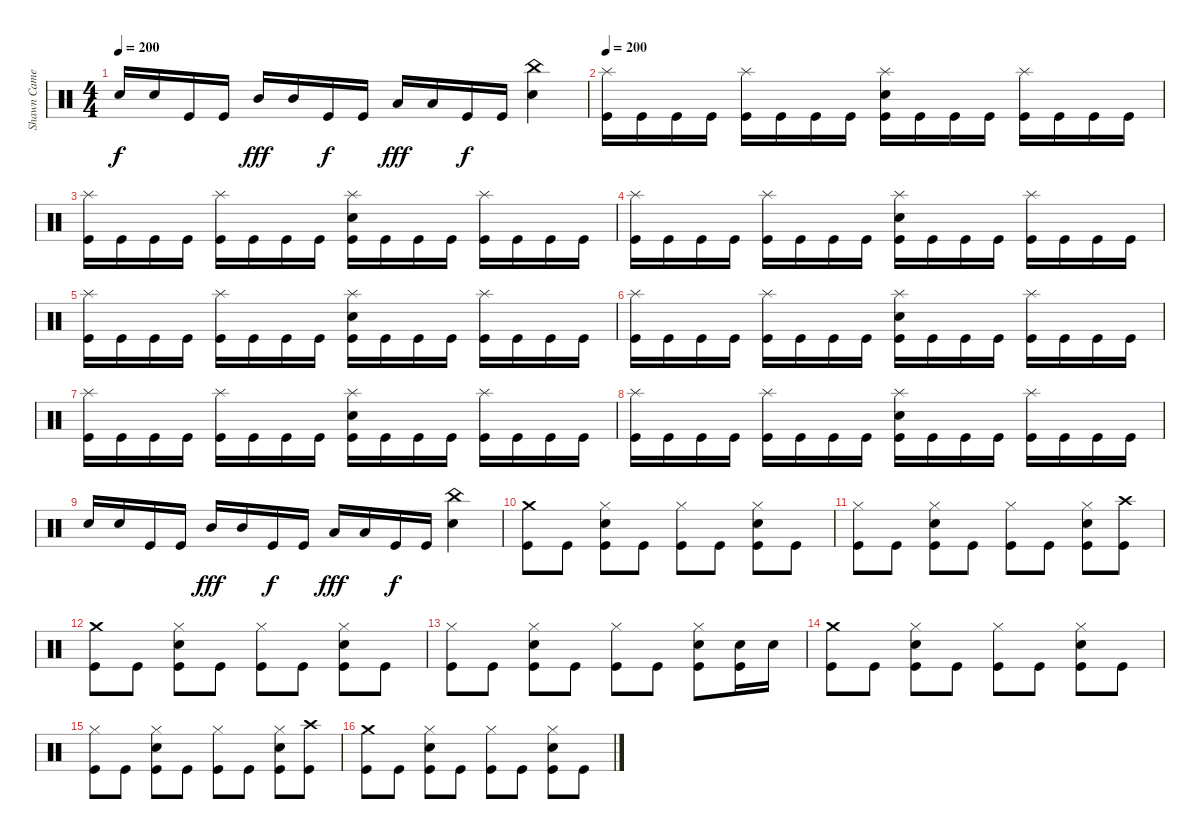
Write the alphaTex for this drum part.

\track ("Shawn Cameron" "Shawn Came") {instrument percussion}
\staff {score}
\articulation defaults
\ts (4 4)
\tempo 200
\clef neutral
\ks c "Snare (hit) 2".16{dy f} "Snare (hit) 2".16 "Kick (hit)".16 "Kick (hit)".16 "Mid Tom (hit)".16{dy fff} "Mid Tom (hit)".16 "Kick (hit)".16{dy f} "Kick (hit)".16 "Low Floor Tom (hit)".16{dy fff} "Low Floor Tom (hit)".16 "Kick (hit)".16{dy f} "Kick (hit)".16
("China (hit)" "Snare (hit) 2").4 |
\tempo 200
("Splash (hit)" "Kick (hit)").16 "Kick (hit)".16 "Kick (hit)".16 "Kick (hit)".16 ("Splash (hit)" "Kick (hit)").16 "Kick (hit)".16 "Kick (hit)".16 "Kick (hit)".16 ("Splash (hit)" "Snare (hit) 2" "Kick (hit)").16 "Kick (hit)".16 "Kick (hit)".16 "Kick (hit)".16 ("Splash (hit)" "Kick (hit)").16 "Kick (hit)".16 "Kick (hit)".16 "Kick (hit)".16 |
("Splash (hit)" "Kick (hit)").16 "Kick (hit)".16 "Kick (hit)".16 "Kick (hit)".16 ("Splash (hit)" "Kick (hit)").16 "Kick (hit)".16 "Kick (hit)".16 "Kick (hit)".16 ("Splash (hit)" "Snare (hit) 2" "Kick (hit)").16 "Kick (hit)".16 "Kick (hit)".16 "Kick (hit)".16 ("Splash (hit)" "Kick (hit)").16 "Kick (hit)".16 "Kick (hit)".16 "Kick (hit)".16 |
("Splash (hit)" "Kick (hit)").16 "Kick (hit)".16 "Kick (hit)".16 "Kick (hit)".16 ("Splash (hit)" "Kick (hit)").16 "Kick (hit)".16 "Kick (hit)".16 "Kick (hit)".16 ("Splash (hit)" "Snare (hit) 2" "Kick (hit)").16 "Kick (hit)".16 "Kick (hit)".16 "Kick (hit)".16 ("Splash (hit)" "Kick (hit)").16 "Kick (hit)".16 "Kick (hit)".16 "Kick (hit)".16 |
("Splash (hit)" "Kick (hit)").16 "Kick (hit)".16 "Kick (hit)".16 "Kick (hit)".16 ("Splash (hit)" "Kick (hit)").16 "Kick (hit)".16 "Kick (hit)".16 "Kick (hit)".16 ("Splash (hit)" "Snare (hit) 2" "Kick (hit)").16 "Kick (hit)".16 "Kick (hit)".16 "Kick (hit)".16 ("Splash (hit)" "Kick (hit)").16 "Kick (hit)".16 "Kick (hit)".16 "Kick (hit)".16 |
("Splash (hit)" "Kick (hit)").16 "Kick (hit)".16 "Kick (hit)".16 "Kick (hit)".16 ("Splash (hit)" "Kick (hit)").16 "Kick (hit)".16 "Kick (hit)".16 "Kick (hit)".16 ("Splash (hit)" "Snare (hit) 2" "Kick (hit)").16 "Kick (hit)".16 "Kick (hit)".16 "Kick (hit)".16 ("Splash (hit)" "Kick (hit)").16 "Kick (hit)".16 "Kick (hit)".16 "Kick (hit)".16 |
("Splash (hit)" "Kick (hit)").16 "Kick (hit)".16 "Kick (hit)".16 "Kick (hit)".16 ("Splash (hit)" "Kick (hit)").16 "Kick (hit)".16 "Kick (hit)".16 "Kick (hit)".16 ("Splash (hit)" "Snare (hit) 2" "Kick (hit)").16 "Kick (hit)".16 "Kick (hit)".16 "Kick (hit)".16 ("Splash (hit)" "Kick (hit)").16 "Kick (hit)".16 "Kick (hit)".16 "Kick (hit)".16 |
("Splash (hit)" "Kick (hit)").16 "Kick (hit)".16 "Kick (hit)".16 "Kick (hit)".16 ("Splash (hit)" "Kick (hit)").16 "Kick (hit)".16 "Kick (hit)".16 "Kick (hit)".16 ("Splash (hit)" "Snare (hit) 2" "Kick (hit)").16 "Kick (hit)".16 "Kick (hit)".16 "Kick (hit)".16 ("Splash (hit)" "Kick (hit)").16 "Kick (hit)".16 "Kick (hit)".16 "Kick (hit)".16 |
"Snare (hit) 2".16 "Snare (hit) 2".16 "Kick (hit)".16 "Kick (hit)".16 "Mid Tom (hit)".16{dy fff} "Mid Tom (hit)".16 "Kick (hit)".16{dy f} "Kick (hit)".16 "Low Floor Tom (hit)".16{dy fff} "Low Floor Tom (hit)".16 "Kick (hit)".16{dy f} "Kick (hit)".16 ("China (hit)" "Snare (hit) 2").4 |
("Crash medium (hit)" "Kick (hit)").8 "Kick (hit)".8 ("Hi-Hat (closed)" "Snare (hit) 2" "Kick (hit)").8 "Kick (hit)".8 ("Hi-Hat (closed)" "Kick (hit)").8 "Kick (hit)".8 ("Hi-Hat (closed)" "Snare (hit) 2" "Kick (hit)").8 "Kick (hit)".8 |
("Hi-Hat (closed)" "Kick (hit)").8 "Kick (hit)".8 ("Hi-Hat (closed)" "Snare (hit) 2" "Kick (hit)").8 "Kick (hit)".8 ("Hi-Hat (closed)" "Kick (hit)").8 "Kick (hit)".8 ("Hi-Hat (closed)" "Snare (hit) 2" "Kick (hit)").8 ("Crash high (hit)" "Kick (hit)").8 |
("Crash medium (hit)" "Kick (hit)").8 "Kick (hit)".8 ("Hi-Hat (closed)" "Snare (hit) 2" "Kick (hit)").8 "Kick (hit)".8 ("Hi-Hat (closed)" "Kick (hit)").8 "Kick (hit)".8 ("Hi-Hat (closed)" "Snare (hit) 2" "Kick (hit)").8 "Kick (hit)".8 |
("Hi-Hat (closed)" "Kick (hit)").8 "Kick (hit)".8 ("Hi-Hat (closed)" "Snare (hit) 2" "Kick (hit)").8 "Kick (hit)".8 ("Hi-Hat (closed)" "Kick (hit)").8 "Kick (hit)".8 ("Hi-Hat (closed)" "Snare (hit) 2" "Kick (hit)").8 ("Snare (hit) 2" "Kick (hit)").16 "Snare (hit) 2".16 |
("Crash medium (hit)" "Kick (hit)").8 "Kick (hit)".8 ("Hi-Hat (closed)" "Snare (hit) 2" "Kick (hit)").8 "Kick (hit)".8 ("Hi-Hat (closed)" "Kick (hit)").8 "Kick (hit)".8 ("Hi-Hat (closed)" "Snare (hit) 2" "Kick (hit)").8 "Kick (hit)".8 |
("Hi-Hat (closed)" "Kick (hit)").8 "Kick (hit)".8 ("Hi-Hat (closed)" "Snare (hit) 2" "Kick (hit)").8 "Kick (hit)".8 ("Hi-Hat (closed)" "Kick (hit)").8 "Kick (hit)".8 ("Hi-Hat (closed)" "Snare (hit) 2" "Kick (hit)").8 ("Crash high (hit)" "Kick (hit)").8 |
("Crash medium (hit)" "Kick (hit)").8 "Kick (hit)".8 ("Hi-Hat (closed)" "Snare (hit) 2" "Kick (hit)").8 "Kick (hit)".8 ("Hi-Hat (closed)" "Kick (hit)").8 "Kick (hit)".8 ("Hi-Hat (closed)" "Snare (hit) 2" "Kick (hit)").8 "Kick (hit)".8
